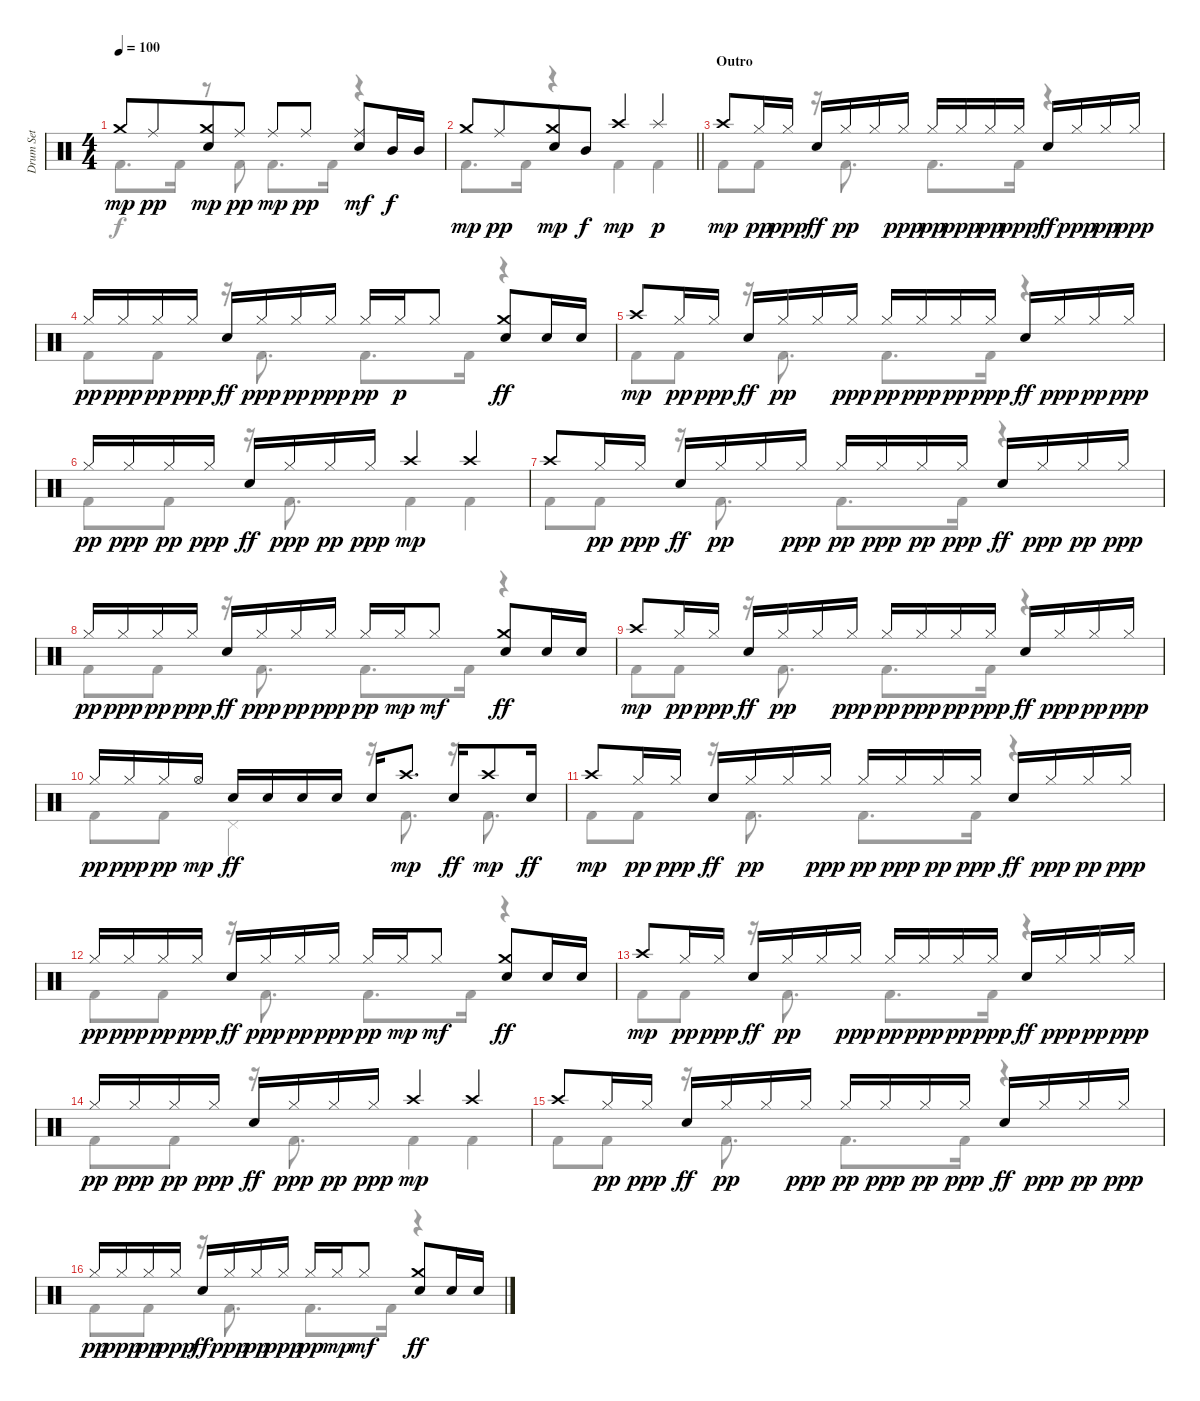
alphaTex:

\track ("Drum Set" "Drum Set") {instrument percussion}
\staff {score}
\articulation defaults
\voice
\ts (4 4)
\tempo 100
\clef neutral
\ks c "Crash medium (hit)".8{dy mp} "Ride (middle)".8{dy pp beam merge}
("Electric Snare (hit)" "Crash medium (hit)").8{dy mp} "Ride (middle)".8{dy pp} "Ride (middle)".8{dy mp} "Ride (middle)".8{dy pp} ("Electric Snare (hit)" "Ride (middle)").8{dy mf} "Mid Tom (hit)".16{dy f} "Mid Tom (hit)".16 |
\barLineRight lightlight "Crash medium (hit)".8{dy mp} "Ride (middle)".8{dy pp beam merge}
("Electric Snare (hit)" "Crash medium (hit)").8{dy mp} "Mid Tom (hit)".8{dy f} "Crash high (hit)".4{dy mp} "Splash (hit)".4{dy p} |
\section ("" "Outro")
"Crash high (hit)".8{dy mp} "Hi-Hat (closed)".16{dy pp} "Hi-Hat (closed)".16{dy ppp} "Electric Snare (hit)".16{dy ff} "Hi-Hat (closed)".16{dy pp} "Hi-Hat (closed)".16 "Hi-Hat (closed)".16{dy ppp} "Hi-Hat (closed)".16{dy pp} "Hi-Hat (closed)".16{dy ppp} "Hi-Hat (closed)".16{dy pp} "Hi-Hat (closed)".16{dy ppp} "Electric Snare (hit)".16{dy ff} "Hi-Hat (closed)".16{dy ppp} "Hi-Hat (closed)".16{dy pp} "Hi-Hat (closed)".16{dy ppp} |
"Hi-Hat (closed)".16{dy pp} "Hi-Hat (closed)".16{dy ppp} "Hi-Hat (closed)".16{dy pp} "Hi-Hat (closed)".16{dy ppp} "Electric Snare (hit)".16{dy ff} "Hi-Hat (closed)".16{dy ppp} "Hi-Hat (closed)".16{dy pp} "Hi-Hat (closed)".16{dy ppp} "Hi-Hat (closed)".16{dy pp} "Hi-Hat (closed)".16{dy p} "Hi-Hat (closed)".8 ("Crash medium (hit)" "Electric Snare (hit)").8{dy ff} "Electric Snare (hit)".16 "Electric Snare (hit)".16 |
"Crash high (hit)".8{dy mp} "Hi-Hat (closed)".16{dy pp} "Hi-Hat (closed)".16{dy ppp} "Electric Snare (hit)".16{dy ff} "Hi-Hat (closed)".16{dy pp} "Hi-Hat (closed)".16 "Hi-Hat (closed)".16{dy ppp} "Hi-Hat (closed)".16{dy pp} "Hi-Hat (closed)".16{dy ppp} "Hi-Hat (closed)".16{dy pp} "Hi-Hat (closed)".16{dy ppp} "Electric Snare (hit)".16{dy ff} "Hi-Hat (closed)".16{dy ppp} "Hi-Hat (closed)".16{dy pp} "Hi-Hat (closed)".16{dy ppp} |
"Hi-Hat (closed)".16{dy pp} "Hi-Hat (closed)".16{dy ppp} "Hi-Hat (closed)".16{dy pp} "Hi-Hat (closed)".16{dy ppp} "Electric Snare (hit)".16{dy ff} "Hi-Hat (closed)".16{dy ppp} "Hi-Hat (closed)".16{dy pp} "Hi-Hat (closed)".16{dy ppp} "Crash high (hit)".4{dy mp} "Crash high (hit)".4 |
"Crash high (hit)".8 "Hi-Hat (closed)".16{dy pp} "Hi-Hat (closed)".16{dy ppp} "Electric Snare (hit)".16{dy ff} "Hi-Hat (closed)".16{dy pp} "Hi-Hat (closed)".16 "Hi-Hat (closed)".16{dy ppp} "Hi-Hat (closed)".16{dy pp} "Hi-Hat (closed)".16{dy ppp} "Hi-Hat (closed)".16{dy pp} "Hi-Hat (closed)".16{dy ppp} "Electric Snare (hit)".16{dy ff} "Hi-Hat (closed)".16{dy ppp} "Hi-Hat (closed)".16{dy pp} "Hi-Hat (closed)".16{dy ppp} |
"Hi-Hat (closed)".16{dy pp} "Hi-Hat (closed)".16{dy ppp} "Hi-Hat (closed)".16{dy pp} "Hi-Hat (closed)".16{dy ppp} "Electric Snare (hit)".16{dy ff} "Hi-Hat (closed)".16{dy ppp} "Hi-Hat (closed)".16{dy pp} "Hi-Hat (closed)".16{dy ppp} "Hi-Hat (closed)".16{dy pp} "Hi-Hat (closed)".16{dy mp} "Hi-Hat (closed)".8{dy mf} ("Crash medium (hit)" "Electric Snare (hit)").8{dy ff} "Electric Snare (hit)".16 "Electric Snare (hit)".16 |
"Crash high (hit)".8{dy mp} "Hi-Hat (closed)".16{dy pp} "Hi-Hat (closed)".16{dy ppp} "Electric Snare (hit)".16{dy ff} "Hi-Hat (closed)".16{dy pp} "Hi-Hat (closed)".16 "Hi-Hat (closed)".16{dy ppp} "Hi-Hat (closed)".16{dy pp} "Hi-Hat (closed)".16{dy ppp} "Hi-Hat (closed)".16{dy pp} "Hi-Hat (closed)".16{dy ppp} "Electric Snare (hit)".16{dy ff} "Hi-Hat (closed)".16{dy ppp} "Hi-Hat (closed)".16{dy pp} "Hi-Hat (closed)".16{dy ppp} |
"Hi-Hat (closed)".16{dy pp} "Hi-Hat (closed)".16{dy ppp} "Hi-Hat (closed)".16{dy pp} "Hi-Hat (open)".16{dy mp} "Electric Snare (hit)".16{dy ff} "Electric Snare (hit)".16 "Electric Snare (hit)".16 "Electric Snare (hit)".16 "Electric Snare (hit)".16 "Crash high (hit)".8{d dy mp} "Electric Snare (hit)".16{dy ff} "Crash high (hit)".8{dy mp} "Electric Snare (hit)".16{dy ff} |
"Crash high (hit)".8{dy mp} "Hi-Hat (closed)".16{dy pp} "Hi-Hat (closed)".16{dy ppp} "Electric Snare (hit)".16{dy ff} "Hi-Hat (closed)".16{dy pp} "Hi-Hat (closed)".16 "Hi-Hat (closed)".16{dy ppp} "Hi-Hat (closed)".16{dy pp} "Hi-Hat (closed)".16{dy ppp} "Hi-Hat (closed)".16{dy pp} "Hi-Hat (closed)".16{dy ppp} "Electric Snare (hit)".16{dy ff} "Hi-Hat (closed)".16{dy ppp} "Hi-Hat (closed)".16{dy pp} "Hi-Hat (closed)".16{dy ppp} |
"Hi-Hat (closed)".16{dy pp} "Hi-Hat (closed)".16{dy ppp} "Hi-Hat (closed)".16{dy pp} "Hi-Hat (closed)".16{dy ppp} "Electric Snare (hit)".16{dy ff} "Hi-Hat (closed)".16{dy ppp} "Hi-Hat (closed)".16{dy pp} "Hi-Hat (closed)".16{dy ppp} "Hi-Hat (closed)".16{dy pp} "Hi-Hat (closed)".16{dy mp} "Hi-Hat (closed)".8{dy mf} ("Crash medium (hit)" "Electric Snare (hit)").8{dy ff} "Electric Snare (hit)".16 "Electric Snare (hit)".16 |
"Crash high (hit)".8{dy mp} "Hi-Hat (closed)".16{dy pp} "Hi-Hat (closed)".16{dy ppp} "Electric Snare (hit)".16{dy ff} "Hi-Hat (closed)".16{dy pp} "Hi-Hat (closed)".16 "Hi-Hat (closed)".16{dy ppp} "Hi-Hat (closed)".16{dy pp} "Hi-Hat (closed)".16{dy ppp} "Hi-Hat (closed)".16{dy pp} "Hi-Hat (closed)".16{dy ppp} "Electric Snare (hit)".16{dy ff} "Hi-Hat (closed)".16{dy ppp} "Hi-Hat (closed)".16{dy pp} "Hi-Hat (closed)".16{dy ppp} |
"Hi-Hat (closed)".16{dy pp} "Hi-Hat (closed)".16{dy ppp} "Hi-Hat (closed)".16{dy pp} "Hi-Hat (closed)".16{dy ppp} "Electric Snare (hit)".16{dy ff} "Hi-Hat (closed)".16{dy ppp} "Hi-Hat (closed)".16{dy pp} "Hi-Hat (closed)".16{dy ppp} "Crash high (hit)".4{dy mp} "Crash high (hit)".4 |
"Crash high (hit)".8 "Hi-Hat (closed)".16{dy pp} "Hi-Hat (closed)".16{dy ppp} "Electric Snare (hit)".16{dy ff} "Hi-Hat (closed)".16{dy pp} "Hi-Hat (closed)".16 "Hi-Hat (closed)".16{dy ppp} "Hi-Hat (closed)".16{dy pp} "Hi-Hat (closed)".16{dy ppp} "Hi-Hat (closed)".16{dy pp} "Hi-Hat (closed)".16{dy ppp} "Electric Snare (hit)".16{dy ff} "Hi-Hat (closed)".16{dy ppp} "Hi-Hat (closed)".16{dy pp} "Hi-Hat (closed)".16{dy ppp} |
"Hi-Hat (closed)".16{dy pp} "Hi-Hat (closed)".16{dy ppp} "Hi-Hat (closed)".16{dy pp} "Hi-Hat (closed)".16{dy ppp} "Electric Snare (hit)".16{dy ff} "Hi-Hat (closed)".16{dy ppp} "Hi-Hat (closed)".16{dy pp} "Hi-Hat (closed)".16{dy ppp} "Hi-Hat (closed)".16{dy pp} "Hi-Hat (closed)".16{dy mp} "Hi-Hat (closed)".8{dy mf} ("Crash medium (hit)" "Electric Snare (hit)").8{dy ff} "Electric Snare (hit)".16 "Electric Snare (hit)".16
\voice
\clef neutral
\ottava regular
\simile none
\ks c "Kick (hit) 2".8{d dy f} "Kick (hit) 2".16
r.8 "Kick (hit) 2".8 "Kick (hit) 2".8{d} "Kick (hit) 2".16 r.4 |
\barLineRight lightlight "Kick (hit) 2".8{d} "Kick (hit) 2".16
r.4 "Kick (hit) 2".4 "Kick (hit) 2".4 |
"Kick (hit) 2".8 "Kick (hit) 2".8 r.16 "Kick (hit) 2".8{d} "Kick (hit) 2".8{d} "Kick (hit) 2".16 r.4 |
"Kick (hit) 2".8 "Kick (hit) 2".8 r.16 "Kick (hit) 2".8{d} "Kick (hit) 2".8{d} "Kick (hit) 2".16 r.4 |
"Kick (hit) 2".8 "Kick (hit) 2".8 r.16 "Kick (hit) 2".8{d} "Kick (hit) 2".8{d} "Kick (hit) 2".16 r.4 |
"Kick (hit) 2".8 "Kick (hit) 2".8 r.16 "Kick (hit) 2".8{d} "Kick (hit) 2".4 "Kick (hit) 2".4 |
"Kick (hit) 2".8 "Kick (hit) 2".8 r.16 "Kick (hit) 2".8{d} "Kick (hit) 2".8{d} "Kick (hit) 2".16 r.4 |
"Kick (hit) 2".8 "Kick (hit) 2".8 r.16 "Kick (hit) 2".8{d} "Kick (hit) 2".8{d} "Kick (hit) 2".16 r.4 |
"Kick (hit) 2".8 "Kick (hit) 2".8 r.16 "Kick (hit) 2".8{d} "Kick (hit) 2".8{d} "Kick (hit) 2".16 r.4 |
"Kick (hit) 2".8 "Kick (hit) 2".8 "Pedal Hi-Hat (hit)".4 r.16 "Kick (hit) 2".8{d} r.16 "Kick (hit) 2".8{d} |
"Kick (hit) 2".8 "Kick (hit) 2".8 r.16 "Kick (hit) 2".8{d} "Kick (hit) 2".8{d} "Kick (hit) 2".16 r.4 |
"Kick (hit) 2".8 "Kick (hit) 2".8 r.16 "Kick (hit) 2".8{d} "Kick (hit) 2".8{d} "Kick (hit) 2".16 r.4 |
"Kick (hit) 2".8 "Kick (hit) 2".8 r.16 "Kick (hit) 2".8{d} "Kick (hit) 2".8{d} "Kick (hit) 2".16 r.4 |
"Kick (hit) 2".8 "Kick (hit) 2".8 r.16 "Kick (hit) 2".8{d} "Kick (hit) 2".4 "Kick (hit) 2".4 |
"Kick (hit) 2".8 "Kick (hit) 2".8 r.16 "Kick (hit) 2".8{d} "Kick (hit) 2".8{d} "Kick (hit) 2".16 r.4 |
"Kick (hit) 2".8 "Kick (hit) 2".8 r.16 "Kick (hit) 2".8{d} "Kick (hit) 2".8{d} "Kick (hit) 2".16 r.4
